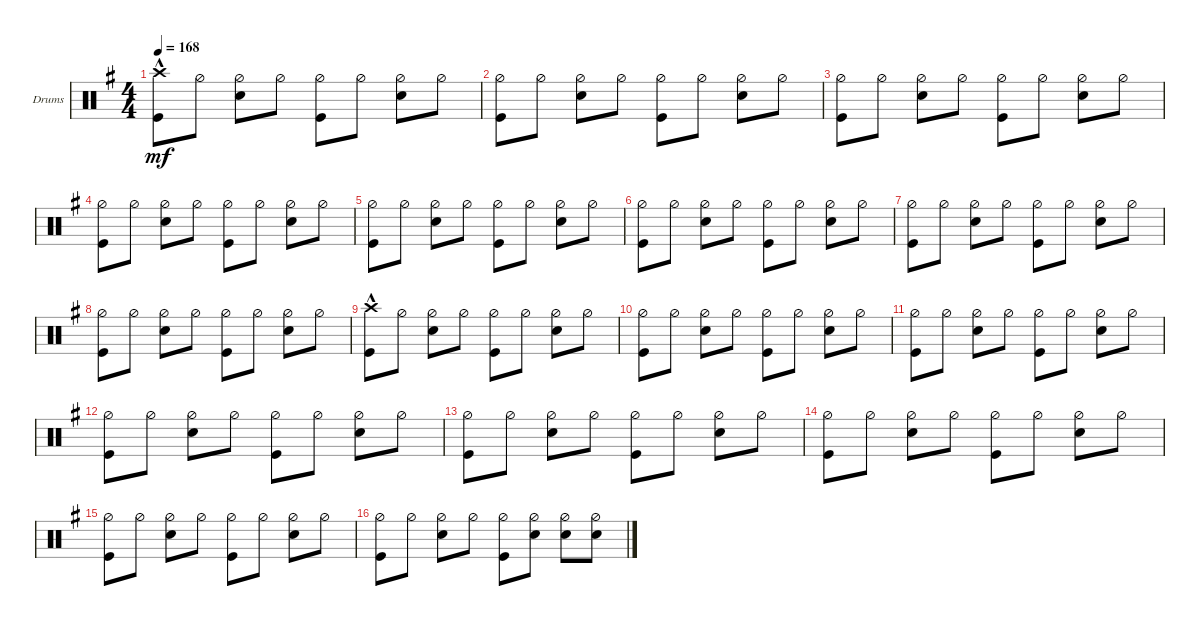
\defaultSystemsLayout 4
\bracketExtendMode groupsimilarinstruments
\firstSystemTrackNameOrientation horizontal
\otherSystemsTrackNameOrientation horizontal
\track ("Drumkit" "Drums") {instrument percussion}
\staff {score}
\articulation defaults
\ts (4 4)
\tempo 168
\clef neutral
\ks eminor
("Kick (hit)" "Crash high (hit)"{hac}).8{dy mf} "Hi-Hat (half)".8 ("Hi-Hat (half)" "Snare (hit) 2").8 "Hi-Hat (half)".8 ("Hi-Hat (half)" "Kick (hit)").8 "Hi-Hat (half)".8 ("Hi-Hat (half)" "Snare (hit) 2").8 "Hi-Hat (half)".8 |
("Hi-Hat (half)" "Kick (hit)").8 "Hi-Hat (half)".8 ("Hi-Hat (half)" "Snare (hit) 2").8 "Hi-Hat (half)".8 ("Hi-Hat (half)" "Kick (hit)").8 "Hi-Hat (half)".8 ("Hi-Hat (half)" "Snare (hit) 2").8 "Hi-Hat (half)".8 |
("Hi-Hat (half)" "Kick (hit)").8 "Hi-Hat (half)".8 ("Hi-Hat (half)" "Snare (hit) 2").8 "Hi-Hat (half)".8 ("Hi-Hat (half)" "Kick (hit)").8 "Hi-Hat (half)".8 ("Hi-Hat (half)" "Snare (hit) 2").8 "Hi-Hat (half)".8 |
("Hi-Hat (half)" "Kick (hit)").8 "Hi-Hat (half)".8 ("Hi-Hat (half)" "Snare (hit) 2").8 "Hi-Hat (half)".8 ("Hi-Hat (half)" "Kick (hit)").8 "Hi-Hat (half)".8 ("Hi-Hat (half)" "Snare (hit) 2").8 "Hi-Hat (half)".8 |
("Hi-Hat (half)" "Kick (hit)").8 "Hi-Hat (half)".8 ("Hi-Hat (half)" "Snare (hit) 2").8 "Hi-Hat (half)".8 ("Hi-Hat (half)" "Kick (hit)").8 "Hi-Hat (half)".8 ("Hi-Hat (half)" "Snare (hit) 2").8 "Hi-Hat (half)".8 |
("Hi-Hat (half)" "Kick (hit)").8 "Hi-Hat (half)".8 ("Hi-Hat (half)" "Snare (hit) 2").8 "Hi-Hat (half)".8 ("Hi-Hat (half)" "Kick (hit)").8 "Hi-Hat (half)".8 ("Hi-Hat (half)" "Snare (hit) 2").8 "Hi-Hat (half)".8 |
("Hi-Hat (half)" "Kick (hit)").8 "Hi-Hat (half)".8 ("Hi-Hat (half)" "Snare (hit) 2").8 "Hi-Hat (half)".8 ("Hi-Hat (half)" "Kick (hit)").8 "Hi-Hat (half)".8 ("Hi-Hat (half)" "Snare (hit) 2").8 "Hi-Hat (half)".8 |
("Hi-Hat (half)" "Kick (hit)").8 "Hi-Hat (half)".8 ("Hi-Hat (half)" "Snare (hit) 2").8 "Hi-Hat (half)".8 ("Hi-Hat (half)" "Kick (hit)").8 "Hi-Hat (half)".8 ("Hi-Hat (half)" "Snare (hit) 2").8 "Hi-Hat (half)".8 |
("Kick (hit)" "Crash high (hit)"{hac}).8 "Hi-Hat (half)".8 ("Hi-Hat (half)" "Snare (hit) 2").8 "Hi-Hat (half)".8 ("Hi-Hat (half)" "Kick (hit)").8 "Hi-Hat (half)".8 ("Hi-Hat (half)" "Snare (hit) 2").8 "Hi-Hat (half)".8 |
("Hi-Hat (half)" "Kick (hit)").8 "Hi-Hat (half)".8 ("Hi-Hat (half)" "Snare (hit) 2").8 "Hi-Hat (half)".8 ("Hi-Hat (half)" "Kick (hit)").8 "Hi-Hat (half)".8 ("Hi-Hat (half)" "Snare (hit) 2").8 "Hi-Hat (half)".8 |
("Hi-Hat (half)" "Kick (hit)").8 "Hi-Hat (half)".8 ("Hi-Hat (half)" "Snare (hit) 2").8 "Hi-Hat (half)".8 ("Hi-Hat (half)" "Kick (hit)").8 "Hi-Hat (half)".8 ("Hi-Hat (half)" "Snare (hit) 2").8 "Hi-Hat (half)".8 |
("Hi-Hat (half)" "Kick (hit)").8 "Hi-Hat (half)".8 ("Hi-Hat (half)" "Snare (hit) 2").8 "Hi-Hat (half)".8 ("Hi-Hat (half)" "Kick (hit)").8 "Hi-Hat (half)".8 ("Hi-Hat (half)" "Snare (hit) 2").8 "Hi-Hat (half)".8 |
("Hi-Hat (half)" "Kick (hit)").8 "Hi-Hat (half)".8 ("Hi-Hat (half)" "Snare (hit) 2").8 "Hi-Hat (half)".8 ("Hi-Hat (half)" "Kick (hit)").8 "Hi-Hat (half)".8 ("Hi-Hat (half)" "Snare (hit) 2").8 "Hi-Hat (half)".8 |
("Hi-Hat (half)" "Kick (hit)").8 "Hi-Hat (half)".8 ("Hi-Hat (half)" "Snare (hit) 2").8 "Hi-Hat (half)".8 ("Hi-Hat (half)" "Kick (hit)").8 "Hi-Hat (half)".8 ("Hi-Hat (half)" "Snare (hit) 2").8 "Hi-Hat (half)".8 |
("Hi-Hat (half)" "Kick (hit)").8 "Hi-Hat (half)".8 ("Hi-Hat (half)" "Snare (hit) 2").8 "Hi-Hat (half)".8 ("Hi-Hat (half)" "Kick (hit)").8 "Hi-Hat (half)".8 ("Hi-Hat (half)" "Snare (hit) 2").8 "Hi-Hat (half)".8 |
("Hi-Hat (half)" "Kick (hit)").8 "Hi-Hat (half)".8 ("Hi-Hat (half)" "Snare (hit) 2").8 "Hi-Hat (half)".8 ("Hi-Hat (half)" "Kick (hit)").8 ("Hi-Hat (half)" "Snare (hit) 2").8 ("Hi-Hat (half)" "Snare (hit) 2").8 ("Hi-Hat (half)" "Snare (hit) 2").8
